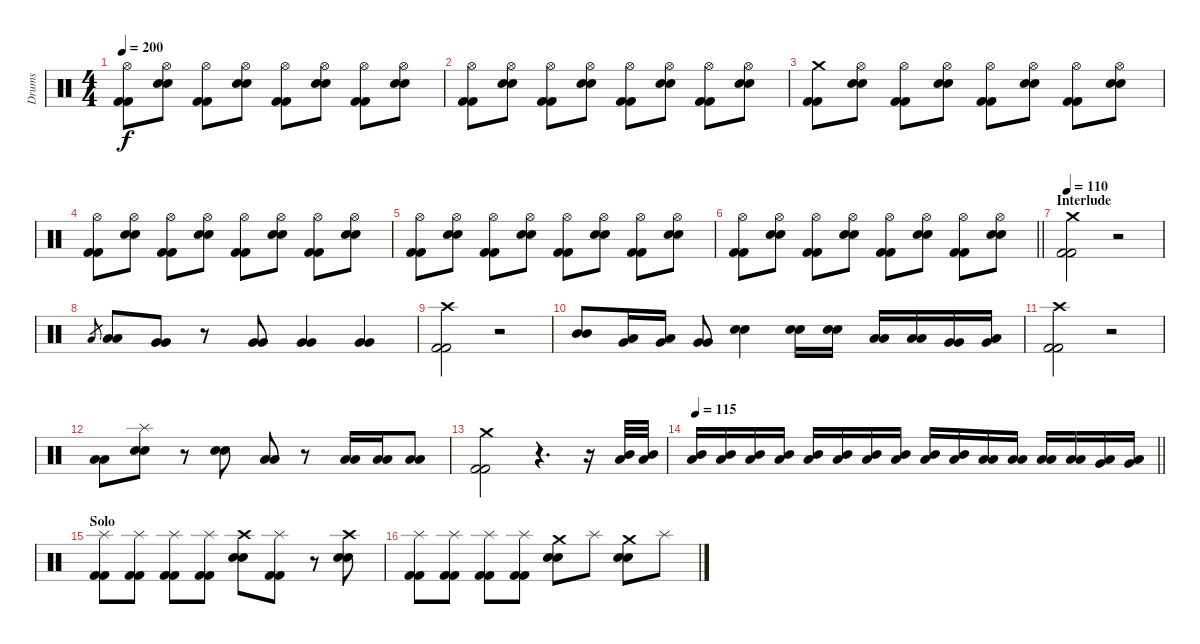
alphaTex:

\track ("Drums" "Drums") {instrument percussion}
\staff {score}
\articulation defaults
\ts (4 4)
\tempo 200
\clef neutral
\ks c
("Hi-Hat (open)" "Kick (hit) 2" "Kick (hit) 2").8{dy f} ("Hi-Hat (open)" "Snare (hit) 2" "Snare (hit) 2").8 ("Hi-Hat (open)" "Kick (hit) 2" "Kick (hit) 2").8 ("Hi-Hat (open)" "Snare (hit) 2" "Snare (hit) 2").8 ("Hi-Hat (open)" "Kick (hit) 2" "Kick (hit) 2").8 ("Hi-Hat (open)" "Snare (hit) 2" "Snare (hit) 2").8 ("Hi-Hat (open)" "Kick (hit) 2" "Kick (hit) 2").8 ("Hi-Hat (open)" "Snare (hit) 2" "Snare (hit) 2").8 |
("Hi-Hat (open)" "Kick (hit) 2" "Kick (hit) 2").8 ("Hi-Hat (open)" "Snare (hit) 2" "Snare (hit) 2").8 ("Hi-Hat (open)" "Kick (hit) 2" "Kick (hit) 2").8 ("Hi-Hat (open)" "Snare (hit) 2" "Snare (hit) 2").8 ("Hi-Hat (open)" "Kick (hit) 2" "Kick (hit) 2").8 ("Hi-Hat (open)" "Snare (hit) 2" "Snare (hit) 2").8 ("Hi-Hat (open)" "Kick (hit) 2" "Kick (hit) 2").8 ("Hi-Hat (open)" "Snare (hit) 2" "Snare (hit) 2").8 |
("Crash medium (hit)" "Kick (hit) 2" "Kick (hit) 2").8 ("Hi-Hat (open)" "Snare (hit) 2" "Snare (hit) 2").8 ("Hi-Hat (open)" "Kick (hit) 2" "Kick (hit) 2").8 ("Hi-Hat (open)" "Snare (hit) 2" "Snare (hit) 2").8 ("Hi-Hat (open)" "Kick (hit) 2" "Kick (hit) 2").8 ("Hi-Hat (open)" "Snare (hit) 2" "Snare (hit) 2").8 ("Hi-Hat (open)" "Kick (hit) 2" "Kick (hit) 2").8 ("Hi-Hat (open)" "Snare (hit) 2" "Snare (hit) 2").8 |
("Hi-Hat (open)" "Kick (hit) 2" "Kick (hit) 2").8 ("Hi-Hat (open)" "Snare (hit) 2" "Snare (hit) 2").8 ("Hi-Hat (open)" "Kick (hit) 2" "Kick (hit) 2").8 ("Hi-Hat (open)" "Snare (hit) 2" "Snare (hit) 2").8 ("Hi-Hat (open)" "Kick (hit) 2" "Kick (hit) 2").8 ("Hi-Hat (open)" "Snare (hit) 2" "Snare (hit) 2").8 ("Hi-Hat (open)" "Kick (hit) 2" "Kick (hit) 2").8 ("Hi-Hat (open)" "Snare (hit) 2" "Snare (hit) 2").8 |
("Hi-Hat (open)" "Kick (hit) 2" "Kick (hit) 2").8 ("Hi-Hat (open)" "Snare (hit) 2" "Snare (hit) 2").8 ("Hi-Hat (open)" "Kick (hit) 2" "Kick (hit) 2").8 ("Hi-Hat (open)" "Snare (hit) 2" "Snare (hit) 2").8 ("Hi-Hat (open)" "Kick (hit) 2" "Kick (hit) 2").8 ("Hi-Hat (open)" "Snare (hit) 2" "Snare (hit) 2").8 ("Hi-Hat (open)" "Kick (hit) 2" "Kick (hit) 2").8 ("Hi-Hat (open)" "Snare (hit) 2" "Snare (hit) 2").8 |
\barLineRight lightlight
("Hi-Hat (open)" "Kick (hit) 2" "Kick (hit) 2").8 ("Hi-Hat (open)" "Snare (hit) 2" "Snare (hit) 2").8 ("Hi-Hat (open)" "Kick (hit) 2" "Kick (hit) 2").8 ("Hi-Hat (open)" "Snare (hit) 2" "Snare (hit) 2").8 ("Hi-Hat (open)" "Kick (hit) 2" "Kick (hit) 2").8 ("Hi-Hat (open)" "Snare (hit) 2" "Snare (hit) 2").8 ("Hi-Hat (open)" "Kick (hit) 2" "Kick (hit) 2").8 ("Hi-Hat (open)" "Snare (hit) 2" "Snare (hit) 2").8 |
\section ("" "Interlude")
\tempo 110
("Crash medium (hit)" "Kick (hit) 2" "Kick (hit) 2").2 r.2 |
"Low Tom (hit)".8{gr} ("Low Tom (hit)" "Low Tom (hit)").8 ("Very Low Tom (hit)" "Very Low Tom (hit)").8 r.8 ("Very Low Tom (hit)" "Very Low Tom (hit)").8 ("Very Low Tom (hit)" "Very Low Tom (hit)").4 ("Very Low Tom (hit)" "Very Low Tom (hit)").4 |
("Crash high (hit)" "Kick (hit) 2" "Kick (hit) 2").2 r.2 |
("Mid Tom (hit)" "Mid Tom (hit)").8 ("Low Tom (hit)" "Very Low Tom (hit)").16 ("Low Tom (hit)" "Very Low Tom (hit)").16 ("Very Low Tom (hit)" "Very Low Tom (hit)").8 ("Snare (hit) 2" "Snare (hit) 2").4 ("Snare (hit) 2" "Snare (hit) 2").16 ("Snare (hit) 2" "Snare (hit) 2").16 ("Low Tom (hit)" "Low Tom (hit)").16 ("Low Tom (hit)" "Low Tom (hit)").16 ("Very Low Tom (hit)" "Very Low Tom (hit)").16 ("Low Floor Tom (hit)" "Very Low Tom (hit)").16 |
("Crash high (hit)" "Kick (hit) 2" "Kick (hit) 2").2 r.2 |
("Low Tom (hit)" "Low Tom (hit)").8 ("Splash (hit)" "Snare (hit) 2" "Snare (hit) 2").8 r.8 ("Snare (hit) 2" "Snare (hit) 2").8 ("Low Tom (hit)" "Low Tom (hit)").8 r.8 ("Low Tom (hit)" "Low Tom (hit)").16 ("Low Tom (hit)" "Low Tom (hit)").16 ("Low Tom (hit)" "Low Tom (hit)").8 |
("Crash medium (hit)" "Kick (hit) 2" "Kick (hit) 2").2 r.4{d} r.16 ("Mid Tom (hit)" "Low Tom (hit)").32 ("Mid Tom (hit)" "Low Tom (hit)").32 |
\tempo 115
\barLineRight lightlight
("Low Tom (hit)" "Mid Tom (hit)").16 ("Low Tom (hit)" "Mid Tom (hit)").16 ("Low Tom (hit)" "Mid Tom (hit)").16 ("Low Tom (hit)" "Mid Tom (hit)").16 ("Low Tom (hit)" "Mid Tom (hit)").16 ("Low Tom (hit)" "Mid Tom (hit)").16 ("Low Tom (hit)" "Mid Tom (hit)").16 ("Low Tom (hit)" "Mid Tom (hit)").16 ("Low Tom (hit)" "Mid Tom (hit)").16 ("Low Tom (hit)" "Mid Tom (hit)").16 ("Low Tom (hit)" "Low Tom (hit)").16 ("Low Tom (hit)" "Low Tom (hit)").16 ("Low Tom (hit)" "Low Tom (hit)").16 ("Low Tom (hit)" "Low Tom (hit)").16 ("Low Tom (hit)" "Very Low Tom (hit)").16 ("Low Tom (hit)" "Very Low Tom (hit)").16 |
\section ("" "Solo")
("Splash (hit)" "Kick (hit) 2" "Kick (hit) 2").8 ("Splash (hit)" "Kick (hit) 2" "Kick (hit) 2").8 ("Splash (hit)" "Kick (hit) 2" "Kick (hit) 2").8 ("Splash (hit)" "Kick (hit) 2" "Kick (hit) 2").8 ("Crash high (hit)" "Snare (hit) 2" "Snare (hit) 2").8 ("Splash (hit)" "Kick (hit) 2" "Kick (hit) 2").8 r.8 ("Crash high (hit)" "Snare (hit) 2" "Snare (hit) 2").8 |
("Splash (hit)" "Kick (hit) 2" "Kick (hit) 2").8 ("Splash (hit)" "Kick (hit) 2" "Kick (hit) 2").8 ("Splash (hit)" "Kick (hit) 2" "Kick (hit) 2").8 ("Splash (hit)" "Kick (hit) 2" "Kick (hit) 2").8 ("Crash medium (hit)" "Snare (hit) 2" "Snare (hit) 2").8 "Splash (hit)".8 ("Crash medium (hit)" "Snare (hit) 2" "Snare (hit) 2").8 "Splash (hit)".8
